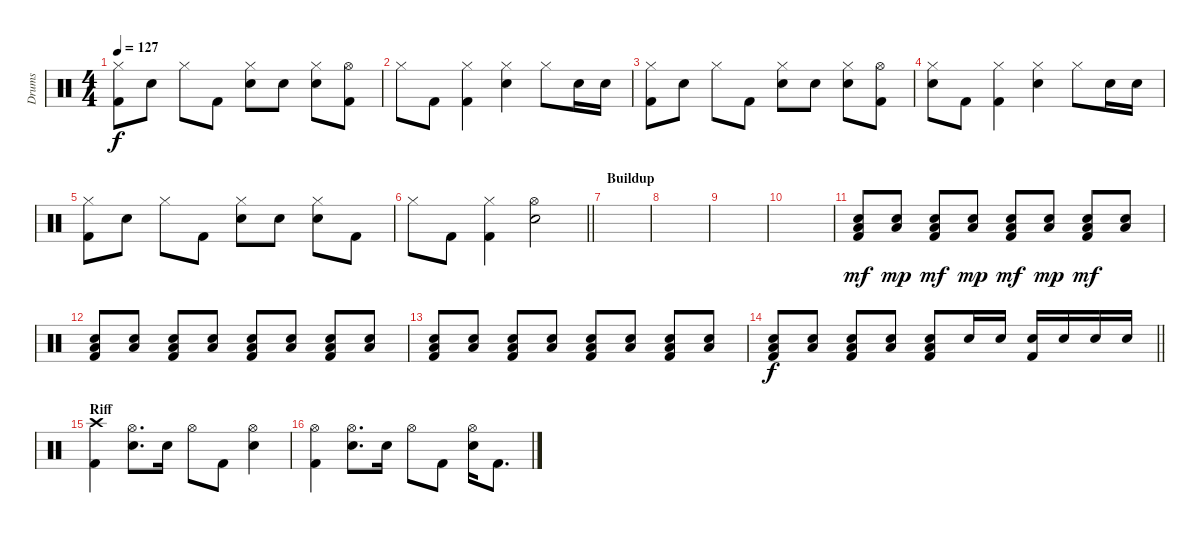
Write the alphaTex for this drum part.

\track ("Drums" "Drums") {instrument percussion}
\staff {score}
\articulation defaults
\ts (4 4)
\tempo 127
\clef neutral
\ks c
("Hi-Hat (closed)" "Kick (hit) 2").8{dy f} "Electric Snare (hit)".8 "Hi-Hat (closed)".8 "Kick (hit) 2".8 ("Hi-Hat (closed)" "Electric Snare (hit)").8 "Electric Snare (hit)".8 ("Hi-Hat (closed)" "Electric Snare (hit)").8 ("Hi-Hat (open)" "Kick (hit) 2").8 |
"Hi-Hat (closed)".8 "Kick (hit) 2".8 ("Hi-Hat (closed)" "Kick (hit) 2").4 ("Hi-Hat (closed)" "Electric Snare (hit)").4 "Hi-Hat (closed)".8 "Electric Snare (hit)".16 "Electric Snare (hit)".16 |
("Hi-Hat (closed)" "Kick (hit) 2").8 "Electric Snare (hit)".8 "Hi-Hat (closed)".8 "Kick (hit) 2".8 ("Hi-Hat (closed)" "Electric Snare (hit)").8 "Electric Snare (hit)".8 ("Hi-Hat (closed)" "Electric Snare (hit)").8 ("Hi-Hat (open)" "Kick (hit) 2").8 |
("Hi-Hat (closed)" "Electric Snare (hit)").8 "Kick (hit) 2".8 ("Hi-Hat (closed)" "Kick (hit) 2").4 ("Hi-Hat (closed)" "Electric Snare (hit)").4 "Hi-Hat (closed)".8 "Electric Snare (hit)".16 "Electric Snare (hit)".16 |
("Hi-Hat (closed)" "Kick (hit) 2").8 "Electric Snare (hit)".8 "Hi-Hat (closed)".8 "Kick (hit) 2".8 ("Hi-Hat (closed)" "Electric Snare (hit)").8 "Electric Snare (hit)".8 ("Hi-Hat (closed)" "Electric Snare (hit)").8 "Kick (hit) 2".8 |
\barLineRight lightlight "Hi-Hat (closed)".8 "Kick (hit) 2".8
("Hi-Hat (closed)" "Kick (hit) 2").4 ("Hi-Hat (open)" "Electric Snare (hit)").2 |
\section ("" "Buildup")
|
|
|
|
("Low Floor Tom (hit)" "Electric Snare (hit)" "Kick (hit) 2").8{dy mf} ("Low Floor Tom (hit)" "Electric Snare (hit)").8{dy mp} ("Low Floor Tom (hit)" "Electric Snare (hit)" "Kick (hit) 2").8{dy mf} ("Low Floor Tom (hit)" "Electric Snare (hit)").8{dy mp} ("Low Floor Tom (hit)" "Electric Snare (hit)" "Kick (hit) 2").8{dy mf} ("Low Floor Tom (hit)" "Electric Snare (hit)").8{dy mp} ("Low Floor Tom (hit)" "Electric Snare (hit)" "Kick (hit) 2").8{dy mf} ("Low Floor Tom (hit)" "Electric Snare (hit)").8 |
("Low Floor Tom (hit)" "Electric Snare (hit)" "Kick (hit) 2").8 ("Low Floor Tom (hit)" "Electric Snare (hit)").8 ("Low Floor Tom (hit)" "Electric Snare (hit)" "Kick (hit) 2").8 ("Low Floor Tom (hit)" "Electric Snare (hit)").8 ("Low Floor Tom (hit)" "Electric Snare (hit)" "Kick (hit) 2").8 ("Low Floor Tom (hit)" "Electric Snare (hit)").8 ("Low Floor Tom (hit)" "Electric Snare (hit)" "Kick (hit) 2").8 ("Low Floor Tom (hit)" "Electric Snare (hit)").8 |
("Low Floor Tom (hit)" "Electric Snare (hit)" "Kick (hit) 2").8 ("Low Floor Tom (hit)" "Electric Snare (hit)").8 ("Low Floor Tom (hit)" "Electric Snare (hit)" "Kick (hit) 2").8 ("Low Floor Tom (hit)" "Electric Snare (hit)").8 ("Low Floor Tom (hit)" "Electric Snare (hit)" "Kick (hit) 2").8 ("Low Floor Tom (hit)" "Electric Snare (hit)").8 ("Low Floor Tom (hit)" "Electric Snare (hit)" "Kick (hit) 2").8 ("Low Floor Tom (hit)" "Electric Snare (hit)").8 |
\barLineRight lightlight
("Low Floor Tom (hit)" "Electric Snare (hit)" "Kick (hit) 2").8{dy f} ("Low Floor Tom (hit)" "Electric Snare (hit)").8 ("Low Floor Tom (hit)" "Electric Snare (hit)" "Kick (hit) 2").8 ("Low Floor Tom (hit)" "Electric Snare (hit)").8 ("Low Floor Tom (hit)" "Electric Snare (hit)" "Kick (hit) 2").8 "Electric Snare (hit)".16 "Electric Snare (hit)".16 ("Electric Snare (hit)" "Kick (hit) 2").16 "Electric Snare (hit)".16 "Electric Snare (hit)".16 "Electric Snare (hit)".16 |
\section ("" "Riff")
("Crash high (hit)" "Kick (hit) 2").4 ("Hi-Hat (open)" "Electric Snare (hit)").8{d} "Electric Snare (hit)".16 "Hi-Hat (open)".8 "Kick (hit) 2".8 ("Hi-Hat (open)" "Electric Snare (hit)").4 |
("Hi-Hat (open)" "Kick (hit) 2").4 ("Hi-Hat (open)" "Electric Snare (hit)").8{d} "Electric Snare (hit)".16 "Hi-Hat (open)".8 "Kick (hit) 2".8 ("Hi-Hat (open)" "Electric Snare (hit)").16 "Kick (hit) 2".8{d}
